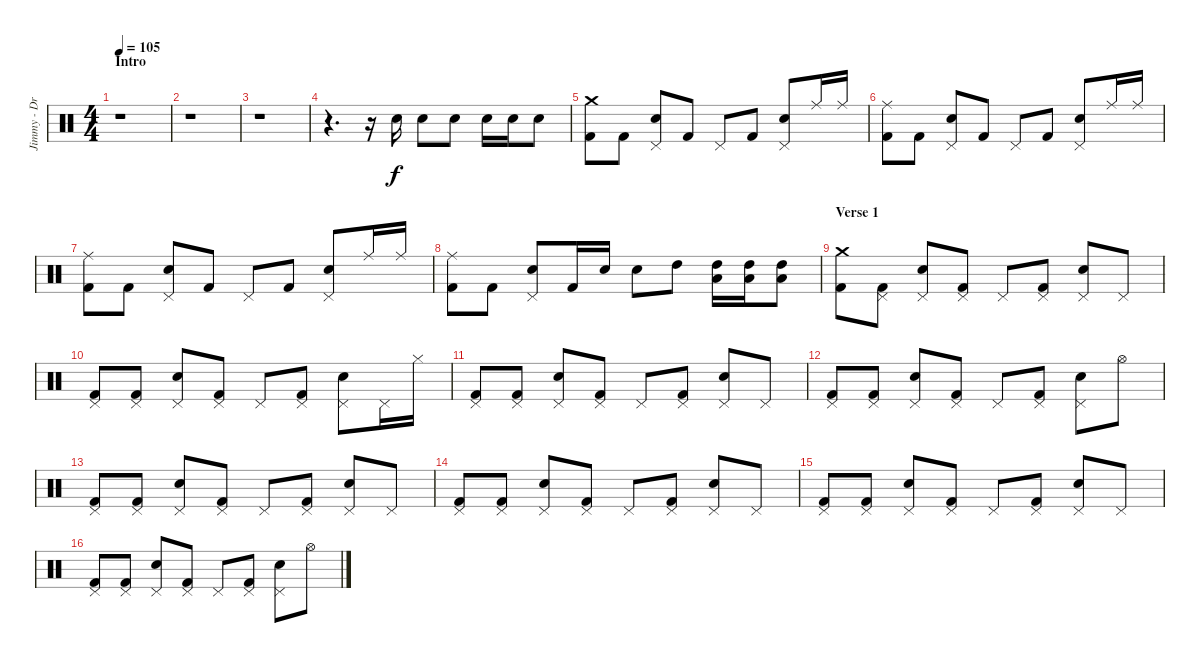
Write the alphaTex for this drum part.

\track ("Jimmy - Drums" "Jimmy - Dr") {instrument percussion}
\staff {score}
\articulation defaults
\ts (4 4)
\section ("" "Intro")
\tempo 105
\clef neutral
\ks c
r.1{dy f} |
r.1 |
r.1 |
r.4{d} r.16 "Electric Snare (hit)".16 "Electric Snare (hit)".8 "Electric Snare (hit)".8 "Electric Snare (hit)".16 "Electric Snare (hit)".16 "Electric Snare (hit)".8 |
("Crash medium (hit)" "Kick (hit) 2").8 "Kick (hit) 2".8 ("Pedal Hi-Hat (hit)" "Electric Snare (hit)").8 "Kick (hit) 2".8 "Pedal Hi-Hat (hit)".8 "Kick (hit) 2".8 ("Pedal Hi-Hat (hit)" "Electric Snare (hit)").8 "Ride (middle)".16 "Ride (middle)".16 |
("Ride (middle)" "Kick (hit) 2").8 "Kick (hit) 2".8 ("Pedal Hi-Hat (hit)" "Electric Snare (hit)").8 "Kick (hit) 2".8 "Pedal Hi-Hat (hit)".8 "Kick (hit) 2".8 ("Pedal Hi-Hat (hit)" "Electric Snare (hit)").8 "Ride (middle)".16 "Ride (middle)".16 |
("Ride (middle)" "Kick (hit) 2").8 "Kick (hit) 2".8 ("Pedal Hi-Hat (hit)" "Electric Snare (hit)").8 "Kick (hit) 2".8 "Pedal Hi-Hat (hit)".8 "Kick (hit) 2".8 ("Pedal Hi-Hat (hit)" "Electric Snare (hit)").8 "Ride (middle)".16 "Ride (middle)".16 |
("Ride (middle)" "Kick (hit) 2").8 "Kick (hit) 2".8 ("Pedal Hi-Hat (hit)" "Electric Snare (hit)").8 "Kick (hit) 2".16 "Electric Snare (hit)".16 "Electric Snare (hit)".8 "High Tom (hit)".8 ("High Tom (hit)" "Low Tom (hit)").16 ("High Tom (hit)" "Low Tom (hit)").16 ("High Tom (hit)" "Low Tom (hit)").8 |
\section ("" "Verse 1")
("Crash medium (hit)" "Kick (hit) 2").8 ("Pedal Hi-Hat (hit)" "Kick (hit) 2").8 ("Pedal Hi-Hat (hit)" "Electric Snare (hit)").8 ("Pedal Hi-Hat (hit)" "Kick (hit) 2").8 "Pedal Hi-Hat (hit)".8 ("Pedal Hi-Hat (hit)" "Kick (hit) 2").8 ("Pedal Hi-Hat (hit)" "Electric Snare (hit)").8 "Pedal Hi-Hat (hit)".8 |
("Pedal Hi-Hat (hit)" "Kick (hit) 2").8 ("Pedal Hi-Hat (hit)" "Kick (hit) 2").8 ("Pedal Hi-Hat (hit)" "Electric Snare (hit)").8 ("Pedal Hi-Hat (hit)" "Kick (hit) 2").8 "Pedal Hi-Hat (hit)".8 ("Pedal Hi-Hat (hit)" "Kick (hit) 2").8 ("Pedal Hi-Hat (hit)" "Electric Snare (hit)").8 "Pedal Hi-Hat (hit)".16 "Hi-Hat (closed)".16 |
("Pedal Hi-Hat (hit)" "Kick (hit) 2").8 ("Pedal Hi-Hat (hit)" "Kick (hit) 2").8 ("Pedal Hi-Hat (hit)" "Electric Snare (hit)").8 ("Pedal Hi-Hat (hit)" "Kick (hit) 2").8 "Pedal Hi-Hat (hit)".8 ("Pedal Hi-Hat (hit)" "Kick (hit) 2").8 ("Pedal Hi-Hat (hit)" "Electric Snare (hit)").8 "Pedal Hi-Hat (hit)".8 |
("Pedal Hi-Hat (hit)" "Kick (hit) 2").8 ("Pedal Hi-Hat (hit)" "Kick (hit) 2").8 ("Pedal Hi-Hat (hit)" "Electric Snare (hit)").8 ("Pedal Hi-Hat (hit)" "Kick (hit) 2").8 "Pedal Hi-Hat (hit)".8 ("Pedal Hi-Hat (hit)" "Kick (hit) 2").8 ("Pedal Hi-Hat (hit)" "Electric Snare (hit)").8 "Hi-Hat (open)".8 |
("Pedal Hi-Hat (hit)" "Kick (hit) 2").8 ("Pedal Hi-Hat (hit)" "Kick (hit) 2").8 ("Pedal Hi-Hat (hit)" "Electric Snare (hit)").8 ("Pedal Hi-Hat (hit)" "Kick (hit) 2").8 "Pedal Hi-Hat (hit)".8 ("Pedal Hi-Hat (hit)" "Kick (hit) 2").8 ("Pedal Hi-Hat (hit)" "Electric Snare (hit)").8 "Pedal Hi-Hat (hit)".8 |
("Pedal Hi-Hat (hit)" "Kick (hit) 2").8 ("Pedal Hi-Hat (hit)" "Kick (hit) 2").8 ("Pedal Hi-Hat (hit)" "Electric Snare (hit)").8 ("Pedal Hi-Hat (hit)" "Kick (hit) 2").8 "Pedal Hi-Hat (hit)".8 ("Pedal Hi-Hat (hit)" "Kick (hit) 2").8 ("Pedal Hi-Hat (hit)" "Electric Snare (hit)").8 "Pedal Hi-Hat (hit)".8 |
("Pedal Hi-Hat (hit)" "Kick (hit) 2").8 ("Pedal Hi-Hat (hit)" "Kick (hit) 2").8 ("Pedal Hi-Hat (hit)" "Electric Snare (hit)").8 ("Pedal Hi-Hat (hit)" "Kick (hit) 2").8 "Pedal Hi-Hat (hit)".8 ("Pedal Hi-Hat (hit)" "Kick (hit) 2").8 ("Pedal Hi-Hat (hit)" "Electric Snare (hit)").8 "Pedal Hi-Hat (hit)".8 |
("Pedal Hi-Hat (hit)" "Kick (hit) 2").8 ("Pedal Hi-Hat (hit)" "Kick (hit) 2").8 ("Pedal Hi-Hat (hit)" "Electric Snare (hit)").8 ("Pedal Hi-Hat (hit)" "Kick (hit) 2").8 "Pedal Hi-Hat (hit)".8 ("Pedal Hi-Hat (hit)" "Kick (hit) 2").8 ("Pedal Hi-Hat (hit)" "Electric Snare (hit)").8 "Hi-Hat (open)".8
